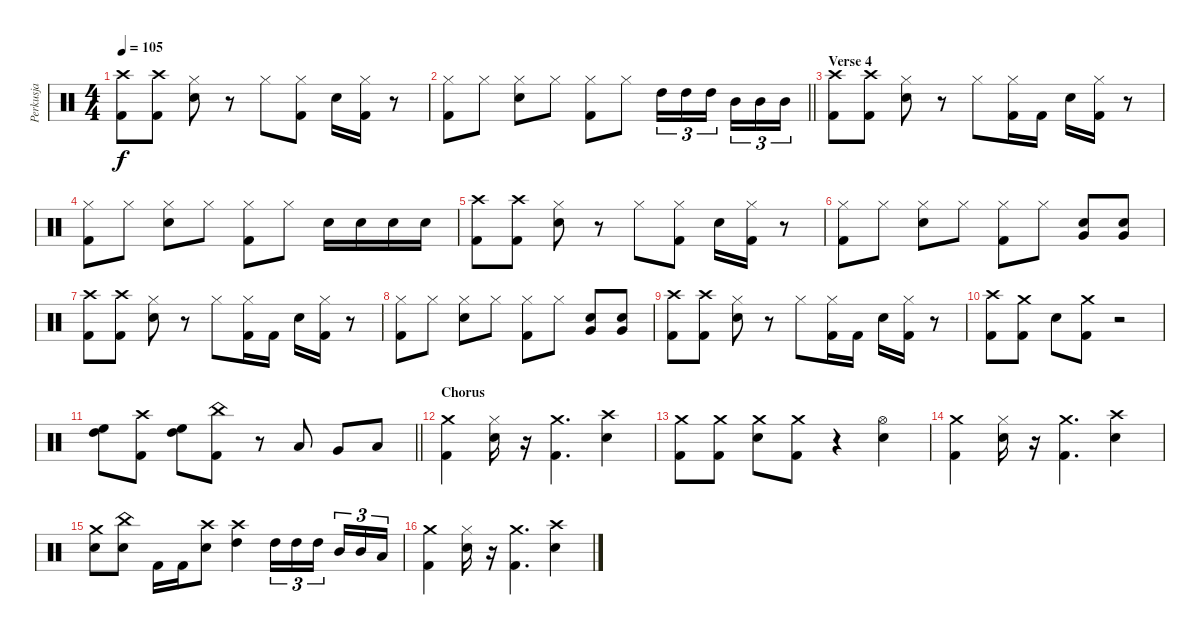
\track ("Perkusja" "Perkusja") {instrument percussion}
\staff {score}
\articulation defaults
\ts (4 4)
\tempo 105
\clef neutral
\ks c
("Kick (hit) 2" "Crash high (hit)").8{dy f} ("Kick (hit) 2" "Crash high (hit)").8 ("Hi-Hat (closed)" "Snare (hit) 2").8 r.8 "Hi-Hat (closed)".8 ("Kick (hit) 2" "Hi-Hat (closed)").8 "Snare (hit) 2".16 ("Hi-Hat (closed)" "Kick (hit) 2").16 r.8 |
\barLineRight lightlight
("Hi-Hat (closed)" "Kick (hit) 2").8 "Hi-Hat (closed)".8 ("Hi-Hat (closed)" "Snare (hit) 2").8 "Hi-Hat (closed)".8 ("Hi-Hat (closed)" "Kick (hit) 2").8 "Hi-Hat (closed)".8 "High Tom (hit)".16{tu (3 2)} "High Tom (hit)".16{tu (3 2)} "High Tom (hit)".16{tu (3 2) beam splitsecondary} "Mid Tom (hit)".16{tu (3 2)} "Mid Tom (hit)".16{tu (3 2)} "Mid Tom (hit)".16{tu (3 2)} |
\section ("" "Verse 4")
("Kick (hit) 2" "Crash high (hit)").8 ("Kick (hit) 2" "Crash high (hit)").8 ("Hi-Hat (closed)" "Snare (hit) 2").8 r.8 "Hi-Hat (closed)".8 ("Kick (hit) 2" "Hi-Hat (closed)").16 "Kick (hit) 2".16 "Snare (hit) 2".16 ("Hi-Hat (closed)" "Kick (hit) 2").16 r.8 |
("Hi-Hat (closed)" "Kick (hit) 2").8 "Hi-Hat (closed)".8 ("Hi-Hat (closed)" "Snare (hit) 2").8 "Hi-Hat (closed)".8 ("Hi-Hat (closed)" "Kick (hit) 2").8 "Hi-Hat (closed)".8 "Snare (hit) 2".16 "Snare (hit) 2".16 "Snare (hit) 2".16 "Snare (hit) 2".16 |
("Kick (hit) 2" "Crash high (hit)").8 ("Kick (hit) 2" "Crash high (hit)").8 ("Hi-Hat (closed)" "Snare (hit) 2").8 r.8 "Hi-Hat (closed)".8 ("Kick (hit) 2" "Hi-Hat (closed)").8 "Snare (hit) 2".16 ("Hi-Hat (closed)" "Kick (hit) 2").16 r.8 |
("Hi-Hat (closed)" "Kick (hit) 2").8 "Hi-Hat (closed)".8 ("Hi-Hat (closed)" "Snare (hit) 2").8 "Hi-Hat (closed)".8 ("Hi-Hat (closed)" "Kick (hit) 2").8 "Hi-Hat (closed)".8 ("Very Low Tom (hit)" "Snare (hit) 2").8 ("Very Low Tom (hit)" "Snare (hit) 2").8 |
("Kick (hit) 2" "Crash high (hit)").8 ("Kick (hit) 2" "Crash high (hit)").8 ("Hi-Hat (closed)" "Snare (hit) 2").8 r.8 "Hi-Hat (closed)".8 ("Kick (hit) 2" "Hi-Hat (closed)").16 "Kick (hit) 2".16 "Snare (hit) 2".16 ("Hi-Hat (closed)" "Kick (hit) 2").16 r.8 |
("Hi-Hat (closed)" "Kick (hit) 2").8 "Hi-Hat (closed)".8 ("Hi-Hat (closed)" "Snare (hit) 2").8 "Hi-Hat (closed)".8 ("Hi-Hat (closed)" "Kick (hit) 2").8 "Hi-Hat (closed)".8 ("Snare (hit) 2" "Very Low Tom (hit)").8 ("Snare (hit) 2" "Very Low Tom (hit)").8 |
("Kick (hit) 2" "Crash high (hit)").8 ("Kick (hit) 2" "Crash high (hit)").8 ("Hi-Hat (closed)" "Snare (hit) 2").8 r.8 "Hi-Hat (closed)".8 ("Kick (hit) 2" "Hi-Hat (closed)").16 "Kick (hit) 2".16 "Snare (hit) 2".16 ("Hi-Hat (closed)" "Kick (hit) 2").16 r.8 |
("Crash high (hit)" "Kick (hit) 2").8 ("Crash medium (hit)" "Kick (hit) 2").8 "Snare (hit) 2".8 ("Crash medium (hit)" "Kick (hit) 2").8 r.2 |
\barLineRight lightlight
("High Floor Tom (hit)" "High Tom (hit)").8 ("Kick (hit) 2" "Crash high (hit)").8 ("High Floor Tom (hit)" "High Tom (hit)").8 ("China (hit)" "Kick (hit) 2").8 r.8 "Low Tom (hit)".8 "Very Low Tom (hit)".8 "Low Floor Tom (hit)".8 |
\section ("" "Chorus")
("Kick (hit) 2" "Crash medium (hit)").4 ("Snare (hit) 2" "Hi-Hat (closed)").16 r.16 ("Kick (hit) 2" "Crash medium (hit)").4{d} ("Snare (hit) 2" "Crash high (hit)").4 |
("Crash medium (hit)" "Kick (hit) 2").8 ("Crash medium (hit)" "Kick (hit) 2").8 ("Crash medium (hit)" "Snare (hit) 2").8 ("Crash medium (hit)" "Kick (hit) 2").8 r.4 ("Snare (hit) 2" "Hi-Hat (open)").4 |
("Kick (hit) 2" "Crash medium (hit)").4 ("Snare (hit) 2" "Hi-Hat (closed)").16 r.16 ("Kick (hit) 2" "Crash medium (hit)").4{d} ("Snare (hit) 2" "Crash high (hit)").4 |
("Crash medium (hit)" "Snare (hit) 2").8 ("China (hit)" "Snare (hit) 2").8 "Kick (hit) 2".16 "Kick (hit) 2".16 ("Crash high (hit)" "Snare (hit) 2").8 ("Crash high (hit)" "High Tom (hit)").4 "High Tom (hit)".16{tu (3 2)} "High Tom (hit)".16{tu (3 2)} "High Tom (hit)".16{tu (3 2) beam splitsecondary} "Mid Tom (hit)".16{tu (3 2)} "Mid Tom (hit)".16{tu (3 2)} "Low Tom (hit)".16{tu (3 2)} |
("Kick (hit) 2" "Crash medium (hit)").4 ("Snare (hit) 2" "Hi-Hat (closed)").16 r.16 ("Kick (hit) 2" "Crash medium (hit)").4{d} ("Snare (hit) 2" "Crash high (hit)").4
